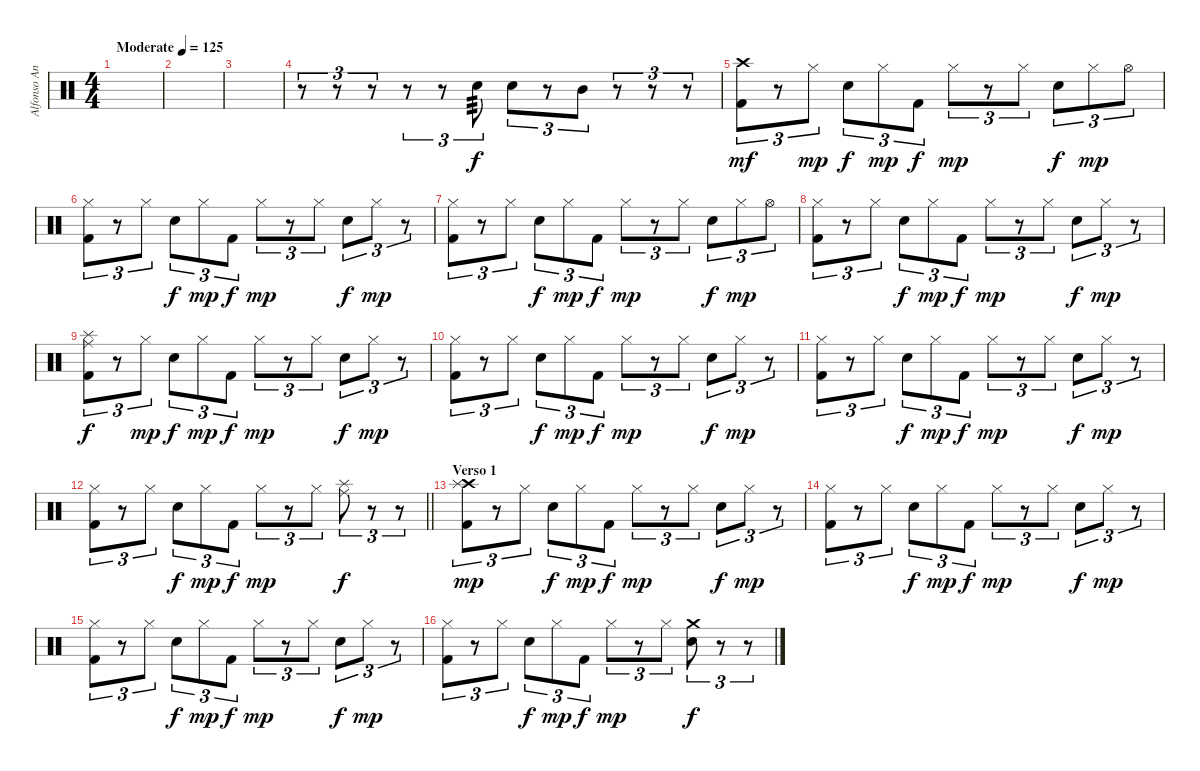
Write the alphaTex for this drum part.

\track ("Alfonso Andre" "Alfonso An") {instrument percussion}
\staff {score}
\articulation defaults
\ts (4 4)
\tempo (125 "Moderate")
\clef neutral
\ks c
|
|
|
r.8{tu (3 2)} r.8{tu (3 2)} r.8{tu (3 2)} r.8{tu (3 2)} r.8{tu (3 2)} "Electric Snare (hit)".8{tu (3 2) tp 3} "Electric Snare (hit)".8{tu (3 2)} r.8{tu (3 2)} "Mid Tom (hit)".8{tu (3 2)} r.8{tu (3 2)} r.8{tu (3 2)} r.8{tu (3 2)} |
("Crash high (hit)" "Kick (hit) 2").8{tu (3 2) dy mf} r.8{tu (3 2)} "Hi-Hat (closed)".8{tu (3 2) dy mp} "Electric Snare (hit)".8{tu (3 2) dy f} "Hi-Hat (closed)".8{tu (3 2) dy mp} "Kick (hit) 2".8{tu (3 2) dy f} "Hi-Hat (closed)".8{tu (3 2) dy mp} r.8{tu (3 2)} "Hi-Hat (closed)".8{tu (3 2)} "Electric Snare (hit)".8{tu (3 2) dy f} "Hi-Hat (closed)".8{tu (3 2) dy mp} "Hi-Hat (open)".8{tu (3 2)} |
("Hi-Hat (closed)" "Kick (hit) 2").8{tu (3 2)} r.8{tu (3 2)} "Hi-Hat (closed)".8{tu (3 2)} "Electric Snare (hit)".8{tu (3 2) dy f} "Hi-Hat (closed)".8{tu (3 2) dy mp} "Kick (hit) 2".8{tu (3 2) dy f} "Hi-Hat (closed)".8{tu (3 2) dy mp} r.8{tu (3 2)} "Hi-Hat (closed)".8{tu (3 2)} "Electric Snare (hit)".8{tu (3 2) dy f} "Hi-Hat (closed)".8{tu (3 2) dy mp} r.8{tu (3 2)} |
("Hi-Hat (closed)" "Kick (hit) 2").8{tu (3 2)} r.8{tu (3 2)} "Hi-Hat (closed)".8{tu (3 2)} "Electric Snare (hit)".8{tu (3 2) dy f} "Hi-Hat (closed)".8{tu (3 2) dy mp} "Kick (hit) 2".8{tu (3 2) dy f} "Hi-Hat (closed)".8{tu (3 2) dy mp} r.8{tu (3 2)} "Hi-Hat (closed)".8{tu (3 2)} "Electric Snare (hit)".8{tu (3 2) dy f} "Hi-Hat (closed)".8{tu (3 2) dy mp} "Hi-Hat (open)".8{tu (3 2)} |
("Hi-Hat (closed)" "Kick (hit) 2").8{tu (3 2)} r.8{tu (3 2)} "Hi-Hat (closed)".8{tu (3 2)} "Electric Snare (hit)".8{tu (3 2) dy f} "Hi-Hat (closed)".8{tu (3 2) dy mp} "Kick (hit) 2".8{tu (3 2) dy f} "Hi-Hat (closed)".8{tu (3 2) dy mp} r.8{tu (3 2)} "Hi-Hat (closed)".8{tu (3 2)} "Electric Snare (hit)".8{tu (3 2) dy f} "Hi-Hat (closed)".8{tu (3 2) dy mp} r.8{tu (3 2)} |
("Splash (hit)" "Ride (middle)" "Kick (hit) 2").8{tu (3 2) dy f} r.8{tu (3 2)} "Hi-Hat (closed)".8{tu (3 2) dy mp} "Electric Snare (hit)".8{tu (3 2) dy f} "Hi-Hat (closed)".8{tu (3 2) dy mp} "Kick (hit) 2".8{tu (3 2) dy f} "Hi-Hat (closed)".8{tu (3 2) dy mp} r.8{tu (3 2)} "Hi-Hat (closed)".8{tu (3 2)} "Electric Snare (hit)".8{tu (3 2) dy f} "Hi-Hat (closed)".8{tu (3 2) dy mp} r.8{tu (3 2)} |
("Hi-Hat (closed)" "Kick (hit) 2").8{tu (3 2)} r.8{tu (3 2)} "Hi-Hat (closed)".8{tu (3 2)} "Electric Snare (hit)".8{tu (3 2) dy f} "Hi-Hat (closed)".8{tu (3 2) dy mp} "Kick (hit) 2".8{tu (3 2) dy f} "Hi-Hat (closed)".8{tu (3 2) dy mp} r.8{tu (3 2)} "Hi-Hat (closed)".8{tu (3 2)} "Electric Snare (hit)".8{tu (3 2) dy f} "Hi-Hat (closed)".8{tu (3 2) dy mp} r.8{tu (3 2)} |
("Hi-Hat (closed)" "Kick (hit) 2").8{tu (3 2)} r.8{tu (3 2)} "Hi-Hat (closed)".8{tu (3 2)} "Electric Snare (hit)".8{tu (3 2) dy f} "Hi-Hat (closed)".8{tu (3 2) dy mp} "Kick (hit) 2".8{tu (3 2) dy f} "Hi-Hat (closed)".8{tu (3 2) dy mp} r.8{tu (3 2)} "Hi-Hat (closed)".8{tu (3 2)} "Electric Snare (hit)".8{tu (3 2) dy f} "Hi-Hat (closed)".8{tu (3 2) dy mp} r.8{tu (3 2)} |
\barLineRight lightlight
("Hi-Hat (closed)" "Kick (hit) 2").8{tu (3 2)} r.8{tu (3 2)} "Hi-Hat (closed)".8{tu (3 2)} "Electric Snare (hit)".8{tu (3 2) dy f} "Hi-Hat (closed)".8{tu (3 2) dy mp} "Kick (hit) 2".8{tu (3 2) dy f} "Hi-Hat (closed)".8{tu (3 2) dy mp} r.8{tu (3 2)} "Hi-Hat (closed)".8{tu (3 2)} ("Splash (hit)" "Ride (middle)").8{tu (3 2) dy f} r.8{tu (3 2)} r.8{tu (3 2)} |
\section ("" "Verso 1")
("Crash high (hit)" "Splash (hit)" "Kick (hit) 2").8{tu (3 2) dy mp} r.8{tu (3 2)} "Hi-Hat (closed)".8{tu (3 2)} "Electric Snare (hit)".8{tu (3 2) dy f} "Hi-Hat (closed)".8{tu (3 2) dy mp} "Kick (hit) 2".8{tu (3 2) dy f} "Hi-Hat (closed)".8{tu (3 2) dy mp} r.8{tu (3 2)} "Hi-Hat (closed)".8{tu (3 2)} "Electric Snare (hit)".8{tu (3 2) dy f} "Hi-Hat (closed)".8{tu (3 2) dy mp} r.8{tu (3 2)} |
("Hi-Hat (closed)" "Kick (hit) 2").8{tu (3 2)} r.8{tu (3 2)} "Hi-Hat (closed)".8{tu (3 2)} "Electric Snare (hit)".8{tu (3 2) dy f} "Hi-Hat (closed)".8{tu (3 2) dy mp} "Kick (hit) 2".8{tu (3 2) dy f} "Hi-Hat (closed)".8{tu (3 2) dy mp} r.8{tu (3 2)} "Hi-Hat (closed)".8{tu (3 2)} "Electric Snare (hit)".8{tu (3 2) dy f} "Hi-Hat (closed)".8{tu (3 2) dy mp} r.8{tu (3 2)} |
("Hi-Hat (closed)" "Kick (hit) 2").8{tu (3 2)} r.8{tu (3 2)} "Hi-Hat (closed)".8{tu (3 2)} "Electric Snare (hit)".8{tu (3 2) dy f} "Hi-Hat (closed)".8{tu (3 2) dy mp} "Kick (hit) 2".8{tu (3 2) dy f} "Hi-Hat (closed)".8{tu (3 2) dy mp} r.8{tu (3 2)} "Hi-Hat (closed)".8{tu (3 2)} "Electric Snare (hit)".8{tu (3 2) dy f} "Hi-Hat (closed)".8{tu (3 2) dy mp} r.8{tu (3 2)} |
("Hi-Hat (closed)" "Kick (hit) 2").8{tu (3 2)} r.8{tu (3 2)} "Hi-Hat (closed)".8{tu (3 2)} "Electric Snare (hit)".8{tu (3 2) dy f} "Hi-Hat (closed)".8{tu (3 2) dy mp} "Kick (hit) 2".8{tu (3 2) dy f} "Hi-Hat (closed)".8{tu (3 2) dy mp} r.8{tu (3 2)} "Hi-Hat (closed)".8{tu (3 2)} ("Crash medium (hit)" "Electric Snare (hit)").8{tu (3 2) dy f} r.8{tu (3 2)} r.8{tu (3 2)}
